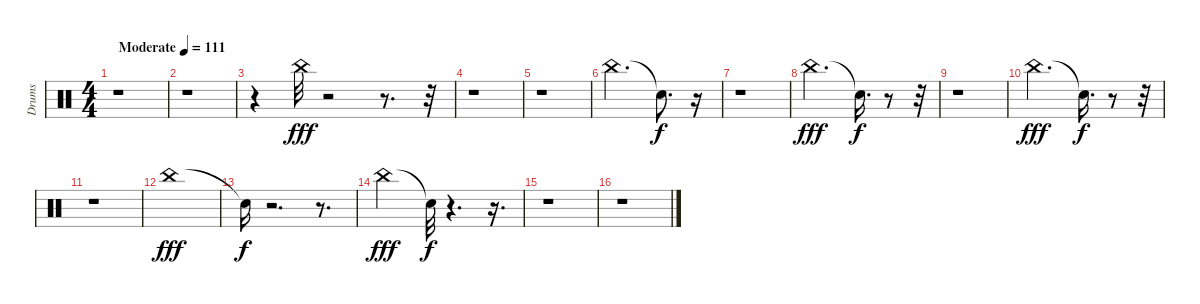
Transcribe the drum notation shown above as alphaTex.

\track ("Drums" "Drums") {instrument percussion}
\staff {score}
\articulation defaults
\ts (4 4)
\tempo (111 "Moderate")
\clef neutral
\ks c
r.1{dy fff} |
r.1 |
r.4 "China (hit)".32 r.2 r.8{d} r.32 |
r.1 |
r.1 |
"China (hit)".2{d} "Snare (hit)"{t}.8{d dy f} r.16 |
r.1 |
"China (hit)".2{d dy fff} "Snare (hit)"{t}.16{d dy f} r.8 r.32 |
r.1 |
"China (hit)".2{d dy fff} "Snare (hit)"{t}.16{d dy f} r.8 r.32 |
r.1 |
"China (hit)".1{dy fff} |
"Snare (hit)"{t}.16{dy f} r.2{d} r.8{d} |
"China (hit)".2{dy fff} "Snare (hit)"{t}.32{dy f} r.4{d} r.16{d} |
r.1 |
r.1
